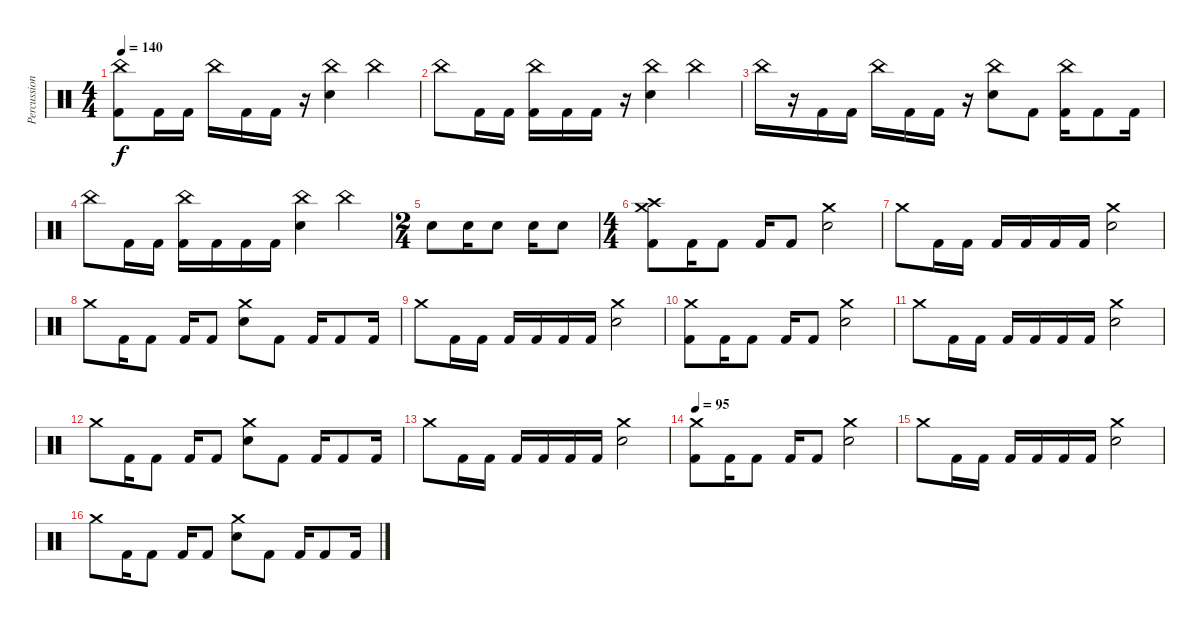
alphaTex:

\track ("Percussion" "Percussion") {instrument percussion}
\staff {score}
\articulation defaults
\ts (4 4)
\tempo 140
\clef neutral
\ks c
("China (hit)" "Kick (hit) 2").8{dy f} "Kick (hit) 2".16 "Kick (hit) 2".16 "China (hit)".16 "Kick (hit) 2".16 "Kick (hit) 2".16 r.16 ("China (hit)" "Electric Snare (hit)").4 "China (hit)".4 |
"China (hit)".8 "Kick (hit) 2".16 "Kick (hit) 2".16 ("China (hit)" "Kick (hit) 2").16 "Kick (hit) 2".16 "Kick (hit) 2".16 r.16 ("China (hit)" "Electric Snare (hit)").4 "China (hit)".4 |
"China (hit)".16 r.16 "Kick (hit) 2".16 "Kick (hit) 2".16 "China (hit)".16 "Kick (hit) 2".16 "Kick (hit) 2".16 r.16 ("China (hit)" "Electric Snare (hit)").8 "Kick (hit) 2".8 ("China (hit)" "Kick (hit) 2").16 "Kick (hit) 2".8 "Kick (hit) 2".16 |
"China (hit)".8 "Kick (hit) 2".16 "Kick (hit) 2".16 ("China (hit)" "Kick (hit) 2").16 "Kick (hit) 2".16 "Kick (hit) 2".16 "Kick (hit) 2".16 ("China (hit)" "Electric Snare (hit)").4 "China (hit)".4 |
\ts (2 4)
"Electric Snare (hit)".8 "Electric Snare (hit)".16 "Electric Snare (hit)".8 "Electric Snare (hit)".16 "Electric Snare (hit)".8 |
\ts (4 4)
("Crash high (hit)" "Crash medium (hit)" "Kick (hit) 2").8 "Kick (hit) 2".16 "Kick (hit) 2".8 "Kick (hit) 2".16 "Kick (hit) 2".8 ("Crash medium (hit)" "Electric Snare (hit)").2 |
"Crash medium (hit)".8 "Kick (hit) 2".16 "Kick (hit) 2".16 "Kick (hit) 2".16 "Kick (hit) 2".16 "Kick (hit) 2".16 "Kick (hit) 2".16 ("Crash medium (hit)" "Electric Snare (hit)").2 |
"Crash medium (hit)".8 "Kick (hit) 2".16 "Kick (hit) 2".8 "Kick (hit) 2".16 "Kick (hit) 2".8 ("Crash medium (hit)" "Electric Snare (hit)").8 "Kick (hit) 2".8 "Kick (hit) 2".16 "Kick (hit) 2".8 "Kick (hit) 2".16 |
"Crash medium (hit)".8 "Kick (hit) 2".16 "Kick (hit) 2".16 "Kick (hit) 2".16 "Kick (hit) 2".16 "Kick (hit) 2".16 "Kick (hit) 2".16 ("Crash medium (hit)" "Electric Snare (hit)").2 |
("Crash medium (hit)" "Kick (hit) 2").8 "Kick (hit) 2".16 "Kick (hit) 2".8 "Kick (hit) 2".16 "Kick (hit) 2".8 ("Crash medium (hit)" "Electric Snare (hit)").2 |
"Crash medium (hit)".8 "Kick (hit) 2".16 "Kick (hit) 2".16 "Kick (hit) 2".16 "Kick (hit) 2".16 "Kick (hit) 2".16 "Kick (hit) 2".16 ("Crash medium (hit)" "Electric Snare (hit)").2 |
"Crash medium (hit)".8 "Kick (hit) 2".16 "Kick (hit) 2".8 "Kick (hit) 2".16 "Kick (hit) 2".8 ("Crash medium (hit)" "Electric Snare (hit)").8 "Kick (hit) 2".8 "Kick (hit) 2".16 "Kick (hit) 2".8 "Kick (hit) 2".16 |
"Crash medium (hit)".8 "Kick (hit) 2".16 "Kick (hit) 2".16 "Kick (hit) 2".16 "Kick (hit) 2".16 "Kick (hit) 2".16 "Kick (hit) 2".16 ("Crash medium (hit)" "Electric Snare (hit)").2 |
\tempo 95
("Crash medium (hit)" "Kick (hit) 2").8 "Kick (hit) 2".16 "Kick (hit) 2".8 "Kick (hit) 2".16 "Kick (hit) 2".8 ("Crash medium (hit)" "Electric Snare (hit)").2 |
"Crash medium (hit)".8 "Kick (hit) 2".16 "Kick (hit) 2".16 "Kick (hit) 2".16 "Kick (hit) 2".16 "Kick (hit) 2".16 "Kick (hit) 2".16 ("Crash medium (hit)" "Electric Snare (hit)").2 |
"Crash medium (hit)".8 "Kick (hit) 2".16 "Kick (hit) 2".8 "Kick (hit) 2".16 "Kick (hit) 2".8 ("Crash medium (hit)" "Electric Snare (hit)").8 "Kick (hit) 2".8 "Kick (hit) 2".16 "Kick (hit) 2".8 "Kick (hit) 2".16
